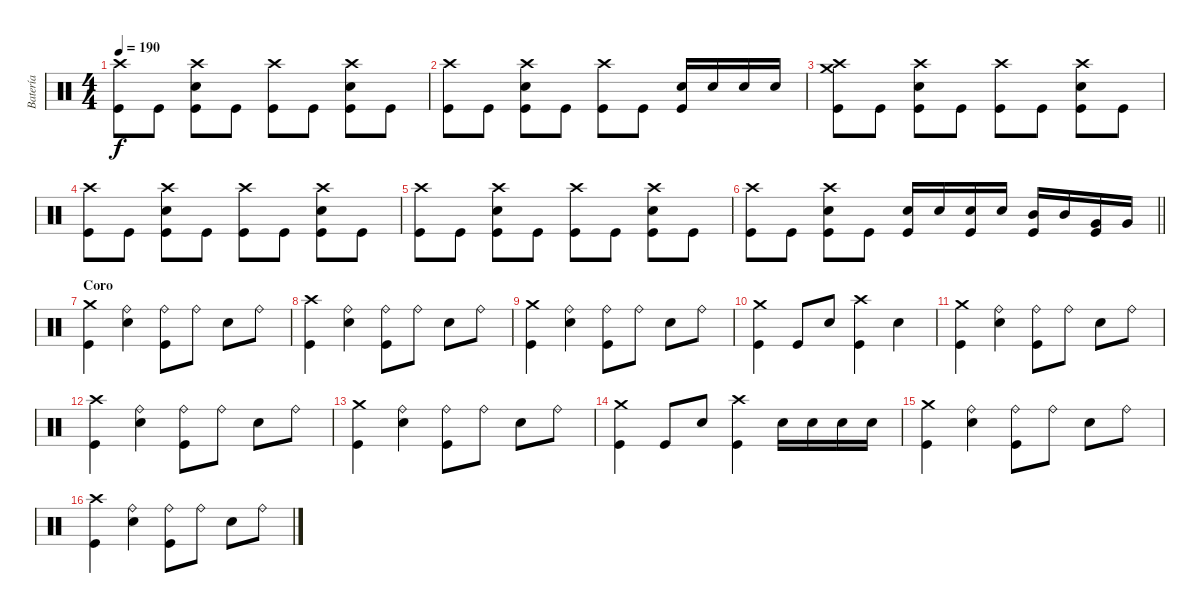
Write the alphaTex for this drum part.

\track ("Batería" "Batería") {instrument percussion}
\staff {score}
\articulation defaults
\ts (4 4)
\tempo 190
\clef neutral
\ks c
("Crash high (hit)" "Kick (hit)").8{dy f} "Kick (hit)".8 ("Crash high (hit)" "Electric Snare (hit)" "Kick (hit)").8 "Kick (hit)".8 ("Crash high (hit)" "Kick (hit)").8 "Kick (hit)".8 ("Crash high (hit)" "Electric Snare (hit)" "Kick (hit)").8 "Kick (hit)".8 |
("Crash high (hit)" "Kick (hit)").8 "Kick (hit)".8 ("Crash high (hit)" "Electric Snare (hit)" "Kick (hit)").8 "Kick (hit)".8 ("Crash high (hit)" "Kick (hit)").8 "Kick (hit)".8 ("Electric Snare (hit)" "Kick (hit)").16 "Electric Snare (hit)".16 "Electric Snare (hit)".16 "Electric Snare (hit)".16 |
("Crash medium (hit)" "Crash high (hit)" "Kick (hit)").8 "Kick (hit)".8 ("Crash high (hit)" "Electric Snare (hit)" "Kick (hit)").8 "Kick (hit)".8 ("Crash high (hit)" "Kick (hit)").8 "Kick (hit)".8 ("Crash high (hit)" "Electric Snare (hit)" "Kick (hit)").8 "Kick (hit)".8 |
("Crash high (hit)" "Kick (hit)").8 "Kick (hit)".8 ("Crash high (hit)" "Electric Snare (hit)" "Kick (hit)").8 "Kick (hit)".8 ("Crash high (hit)" "Kick (hit)").8 "Kick (hit)".8 ("Crash high (hit)" "Electric Snare (hit)" "Kick (hit)").8 "Kick (hit)".8 |
("Crash high (hit)" "Kick (hit)").8 "Kick (hit)".8 ("Crash high (hit)" "Electric Snare (hit)" "Kick (hit)").8 "Kick (hit)".8 ("Crash high (hit)" "Kick (hit)").8 "Kick (hit)".8 ("Crash high (hit)" "Electric Snare (hit)" "Kick (hit)").8 "Kick (hit)".8 |
\barLineRight lightlight
("Crash high (hit)" "Kick (hit)").8 "Kick (hit)".8 ("Crash high (hit)" "Electric Snare (hit)" "Kick (hit)").8 "Kick (hit)".8 ("Electric Snare (hit)" "Kick (hit)").16 "Electric Snare (hit)".16 ("Electric Snare (hit)" "Kick (hit)").16 "Electric Snare (hit)".16 ("Mid Tom (hit)" "Kick (hit)").16 "Mid Tom (hit)".16 ("Very Low Tom (hit)" "Kick (hit)").16 "Very Low Tom (hit)".16 |
\section ("" "Coro")
("Crash medium (hit)" "Kick (hit)").4 ("Ride (bell)" "Electric Snare (hit)").4 ("Ride (bell)" "Kick (hit)").8 "Ride (bell)".8 "Electric Snare (hit)".8 "Ride (bell)".8 |
("Crash high (hit)" "Kick (hit)").4 ("Ride (bell)" "Electric Snare (hit)").4 ("Ride (bell)" "Kick (hit)").8 "Ride (bell)".8 "Electric Snare (hit)".8 "Ride (bell)".8 |
("Crash medium (hit)" "Kick (hit)").4 ("Ride (bell)" "Electric Snare (hit)").4 ("Ride (bell)" "Kick (hit)").8 "Ride (bell)".8 "Electric Snare (hit)".8 "Ride (bell)".8 |
("Crash medium (hit)" "Kick (hit)").4 "Kick (hit)".8 "Electric Snare (hit)".8 ("Crash high (hit)" "Kick (hit)").4 "Electric Snare (hit)".4 |
("Crash medium (hit)" "Kick (hit)").4 ("Ride (bell)" "Electric Snare (hit)").4 ("Ride (bell)" "Kick (hit)").8 "Ride (bell)".8 "Electric Snare (hit)".8 "Ride (bell)".8 |
("Crash high (hit)" "Kick (hit)").4 ("Ride (bell)" "Electric Snare (hit)").4 ("Ride (bell)" "Kick (hit)").8 "Ride (bell)".8 "Electric Snare (hit)".8 "Ride (bell)".8 |
("Crash medium (hit)" "Kick (hit)").4 ("Ride (bell)" "Electric Snare (hit)").4 ("Ride (bell)" "Kick (hit)").8 "Ride (bell)".8 "Electric Snare (hit)".8 "Ride (bell)".8 |
("Crash medium (hit)" "Kick (hit)").4 "Kick (hit)".8 "Electric Snare (hit)".8 ("Crash high (hit)" "Kick (hit)").4 "Electric Snare (hit)".16 "Electric Snare (hit)".16 "Electric Snare (hit)".16 "Electric Snare (hit)".16 |
("Crash medium (hit)" "Kick (hit)").4 ("Ride (bell)" "Electric Snare (hit)").4 ("Ride (bell)" "Kick (hit)").8 "Ride (bell)".8 "Electric Snare (hit)".8 "Ride (bell)".8 |
("Crash high (hit)" "Kick (hit)").4 ("Ride (bell)" "Electric Snare (hit)").4 ("Ride (bell)" "Kick (hit)").8 "Ride (bell)".8 "Electric Snare (hit)".8 "Ride (bell)".8
